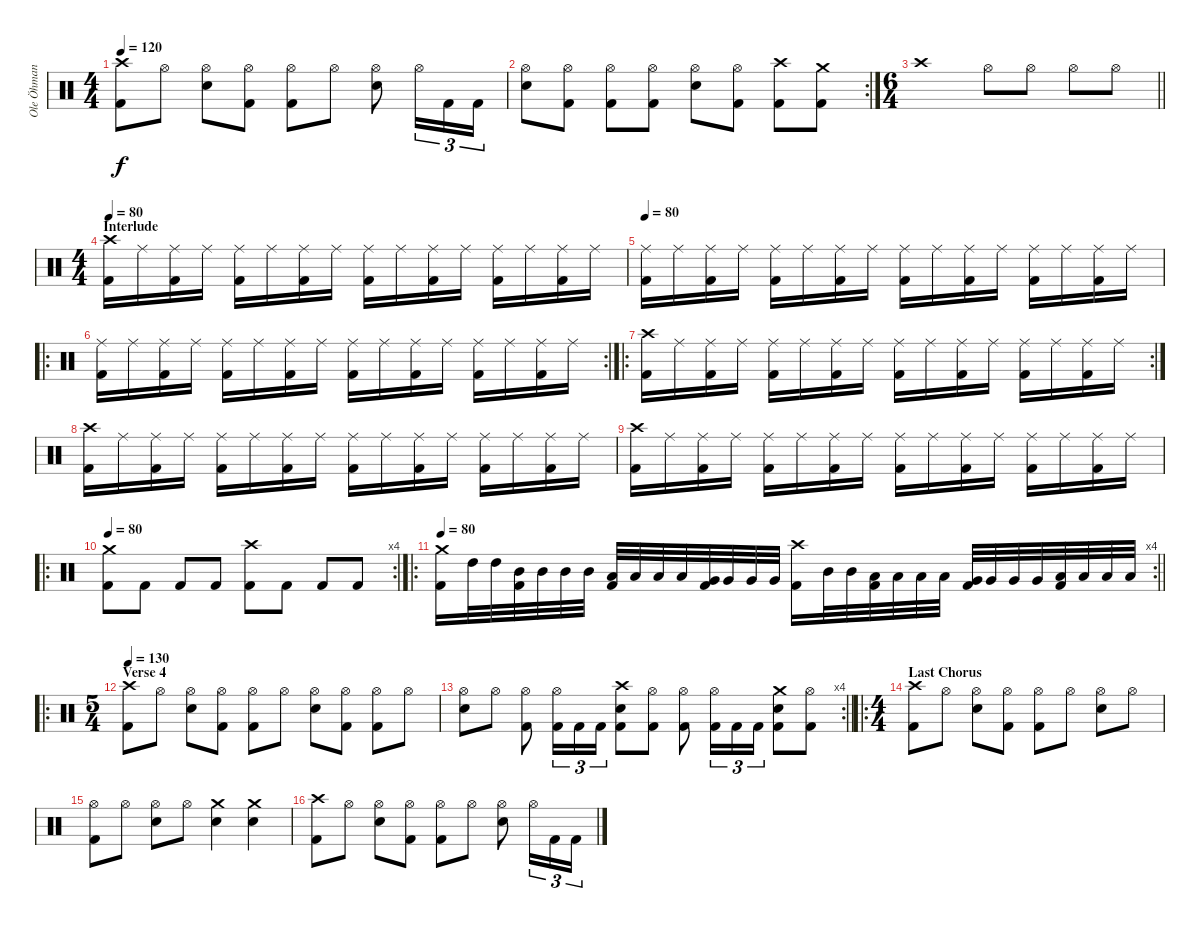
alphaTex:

\track ("Ole Öhman" "Ole Öhman") {instrument percussion}
\staff {score}
\articulation defaults
\ts (4 4)
\tempo 120
\clef neutral
\ks c
("Crash high (hit)" "Kick (hit) 2").8{dy f} "Hi-Hat (open)".8 ("Hi-Hat (open)" "Electric Snare (hit)").8 ("Hi-Hat (open)" "Kick (hit) 2").8 ("Hi-Hat (open)" "Kick (hit) 2").8 "Hi-Hat (open)".8 ("Hi-Hat (open)" "Electric Snare (hit)").8 "Hi-Hat (open)".16{tu (3 2)} "Kick (hit) 2".16{tu (3 2)} "Kick (hit) 2".16{tu (3 2)} |
\rc 2
("Hi-Hat (open)" "Electric Snare (hit)").8 ("Hi-Hat (open)" "Kick (hit) 2").8 ("Hi-Hat (open)" "Kick (hit) 2").8 ("Hi-Hat (open)" "Kick (hit) 2").8 ("Hi-Hat (open)" "Electric Snare (hit)").8 ("Hi-Hat (open)" "Kick (hit) 2").8 ("Crash high (hit)" "Kick (hit) 2").8 ("Crash medium (hit)" "Kick (hit) 2").8 |
\ts (6 4)
\barLineRight lightlight "Crash high (hit)".1 "Hi-Hat (open)".8 "Hi-Hat (open)".8 "Hi-Hat (open)".8 "Hi-Hat (open)".8
|
\ts (4 4)
\section ("" "Interlude")
\tempo 80
("Crash high (hit)" "Kick (hit) 2").16 "Ride (middle)".16 ("Ride (middle)" "Kick (hit) 2").16 "Ride (middle)".16 ("Ride (middle)" "Kick (hit) 2").16 "Ride (middle)".16 ("Ride (middle)" "Kick (hit) 2").16 "Ride (middle)".16 ("Ride (middle)" "Kick (hit) 2").16 "Ride (middle)".16 ("Ride (middle)" "Kick (hit) 2").16 "Ride (middle)".16 ("Ride (middle)" "Kick (hit) 2").16 "Ride (middle)".16 ("Ride (middle)" "Kick (hit) 2").16 "Ride (middle)".16 |
\tempo 80
("Ride (middle)" "Kick (hit) 2").16 "Ride (middle)".16 ("Ride (middle)" "Kick (hit) 2").16 "Ride (middle)".16 ("Ride (middle)" "Kick (hit) 2").16 "Ride (middle)".16 ("Ride (middle)" "Kick (hit) 2").16 "Ride (middle)".16 ("Ride (middle)" "Kick (hit) 2").16 "Ride (middle)".16 ("Ride (middle)" "Kick (hit) 2").16 "Ride (middle)".16 ("Ride (middle)" "Kick (hit) 2").16 "Ride (middle)".16 ("Ride (middle)" "Kick (hit) 2").16 "Ride (middle)".16 |
\ro
\rc 2
("Ride (middle)" "Kick (hit) 2").16 "Ride (middle)".16 ("Ride (middle)" "Kick (hit) 2").16 "Ride (middle)".16 ("Ride (middle)" "Kick (hit) 2").16 "Ride (middle)".16 ("Ride (middle)" "Kick (hit) 2").16 "Ride (middle)".16 ("Ride (middle)" "Kick (hit) 2").16 "Ride (middle)".16 ("Ride (middle)" "Kick (hit) 2").16 "Ride (middle)".16 ("Ride (middle)" "Kick (hit) 2").16 "Ride (middle)".16 ("Ride (middle)" "Kick (hit) 2").16 "Ride (middle)".16 |
\ro
\rc 2
("Crash high (hit)" "Kick (hit) 2").16 "Ride (middle)".16 ("Ride (middle)" "Kick (hit) 2").16 "Ride (middle)".16 ("Ride (middle)" "Kick (hit) 2").16 "Ride (middle)".16 ("Ride (middle)" "Kick (hit) 2").16 "Ride (middle)".16 ("Ride (middle)" "Kick (hit) 2").16 "Ride (middle)".16 ("Ride (middle)" "Kick (hit) 2").16 "Ride (middle)".16 ("Ride (middle)" "Kick (hit) 2").16 "Ride (middle)".16 ("Ride (middle)" "Kick (hit) 2").16 "Ride (middle)".16 |
("Crash high (hit)" "Kick (hit) 2").16 "Ride (middle)".16 ("Ride (middle)" "Kick (hit) 2").16 "Ride (middle)".16 ("Ride (middle)" "Kick (hit) 2").16 "Ride (middle)".16 ("Ride (middle)" "Kick (hit) 2").16 "Ride (middle)".16 ("Ride (middle)" "Kick (hit) 2").16 "Ride (middle)".16 ("Ride (middle)" "Kick (hit) 2").16 "Ride (middle)".16 ("Ride (middle)" "Kick (hit) 2").16 "Ride (middle)".16 ("Ride (middle)" "Kick (hit) 2").16 "Ride (middle)".16 |
("Crash high (hit)" "Kick (hit) 2").16 "Ride (middle)".16 ("Ride (middle)" "Kick (hit) 2").16 "Ride (middle)".16 ("Ride (middle)" "Kick (hit) 2").16 "Ride (middle)".16 ("Ride (middle)" "Kick (hit) 2").16 "Ride (middle)".16 ("Ride (middle)" "Kick (hit) 2").16 "Ride (middle)".16 ("Ride (middle)" "Kick (hit) 2").16 "Ride (middle)".16 ("Ride (middle)" "Kick (hit) 2").16 "Ride (middle)".16 ("Ride (middle)" "Kick (hit) 2").16 "Ride (middle)".16 |
\ro
\rc 4
\tempo 80
("Crash medium (hit)" "Kick (hit) 2").8 "Kick (hit) 2".8 "Kick (hit) 2".8 "Kick (hit) 2".8 ("Crash high (hit)" "Kick (hit) 2").8 "Kick (hit) 2".8 "Kick (hit) 2".8 "Kick (hit) 2".8 |
\ro
\rc 4
\tempo 80
\barLineRight lightlight
("Crash medium (hit)" "Kick (hit) 2").16 "High Tom (hit)".32 "High Tom (hit)".32 ("Mid Tom (hit)" "Kick (hit) 2").32 "Mid Tom (hit)".32 "Mid Tom (hit)".32 "Mid Tom (hit)".32 ("Low Tom (hit)" "Kick (hit) 2").32 "Low Tom (hit)".32 "Low Tom (hit)".32 "Low Tom (hit)".32 ("Very Low Tom (hit)" "Kick (hit) 2").32 "Very Low Tom (hit)".32 "Very Low Tom (hit)".32 "Very Low Tom (hit)".32 ("Crash high (hit)" "Kick (hit) 2").16 "Mid Tom (hit)".32 "Mid Tom (hit)".32 ("Low Tom (hit)" "Kick (hit) 2").32 "Low Tom (hit)".32 "Low Tom (hit)".32 "Low Tom (hit)".32 ("Very Low Tom (hit)" "Kick (hit) 2").32 "Very Low Tom (hit)".32 "Very Low Tom (hit)".32 "Very Low Tom (hit)".32 ("Low Floor Tom (hit)" "Kick (hit) 2").32 "Low Floor Tom (hit)".32 "Low Floor Tom (hit)".32 "Low Floor Tom (hit)".32 |
\ro
\ts (5 4)
\section ("" "Verse 4")
\tempo 130
("Crash high (hit)" "Kick (hit) 2").8 "Hi-Hat (open)".8 ("Hi-Hat (open)" "Electric Snare (hit)").8 ("Hi-Hat (open)" "Kick (hit) 2").8 ("Hi-Hat (open)" "Kick (hit) 2").8 "Hi-Hat (open)".8 ("Hi-Hat (open)" "Electric Snare (hit)").8 ("Hi-Hat (open)" "Kick (hit) 2").8 ("Hi-Hat (open)" "Kick (hit) 2").8 "Hi-Hat (open)".8 |
\rc 4
\barLineRight lightlight
("Hi-Hat (open)" "Electric Snare (hit)").8 "Hi-Hat (open)".8 ("Hi-Hat (open)" "Kick (hit) 2").8 ("Hi-Hat (open)" "Kick (hit) 2").16{tu (3 2)} "Kick (hit) 2".16{tu (3 2)} "Kick (hit) 2".16{tu (3 2)} ("Crash high (hit)" "Electric Snare (hit)" "Kick (hit) 2").8 ("Hi-Hat (open)" "Kick (hit) 2").8 ("Hi-Hat (open)" "Kick (hit) 2").8 ("Hi-Hat (open)" "Kick (hit) 2").16{tu (3 2)} "Kick (hit) 2".16{tu (3 2)} "Kick (hit) 2".16{tu (3 2)} ("Crash medium (hit)" "Electric Snare (hit)" "Kick (hit) 2").8 ("Hi-Hat (open)" "Kick (hit) 2").8 |
\ro
\ts (4 4)
\section ("" "Last Chorus")
("Crash high (hit)" "Kick (hit) 2").8 "Hi-Hat (open)".8 ("Hi-Hat (open)" "Electric Snare (hit)").8 ("Hi-Hat (open)" "Kick (hit) 2").8 ("Hi-Hat (open)" "Kick (hit) 2").8 "Hi-Hat (open)".8 ("Hi-Hat (open)" "Electric Snare (hit)").8 "Hi-Hat (open)".8 |
("Hi-Hat (open)" "Kick (hit) 2").8 "Hi-Hat (open)".8 ("Hi-Hat (open)" "Electric Snare (hit)").8 "Hi-Hat (open)".8 ("Crash medium (hit)" "Electric Snare (hit)").4 ("Crash medium (hit)" "Electric Snare (hit)").4 |
("Crash high (hit)" "Kick (hit) 2").8 "Hi-Hat (open)".8 ("Hi-Hat (open)" "Electric Snare (hit)").8 ("Hi-Hat (open)" "Kick (hit) 2").8 ("Hi-Hat (open)" "Kick (hit) 2").8 "Hi-Hat (open)".8 ("Hi-Hat (open)" "Electric Snare (hit)").8 "Hi-Hat (open)".16{tu (3 2)} "Kick (hit) 2".16{tu (3 2)} "Kick (hit) 2".16{tu (3 2)}
